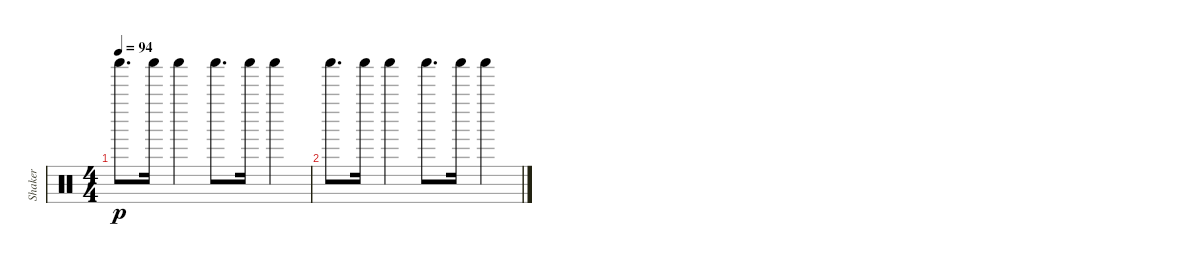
\track ("Shaker" "Shaker") {instrument percussion}
\staff {score}
\articulation defaults
\ts (4 4)
\tempo 94
\clef neutral
\ks c "Shaker (hit)".8{d dy p} "Shaker (hit)".16 "Shaker (hit)".4 "Shaker (hit)".8{d} "Shaker (hit)".16 "Shaker (hit)".4
|
"Shaker (hit)".8{d} "Shaker (hit)".16 "Shaker (hit)".4 "Shaker (hit)".8{d} "Shaker (hit)".16 "Shaker (hit)".4
